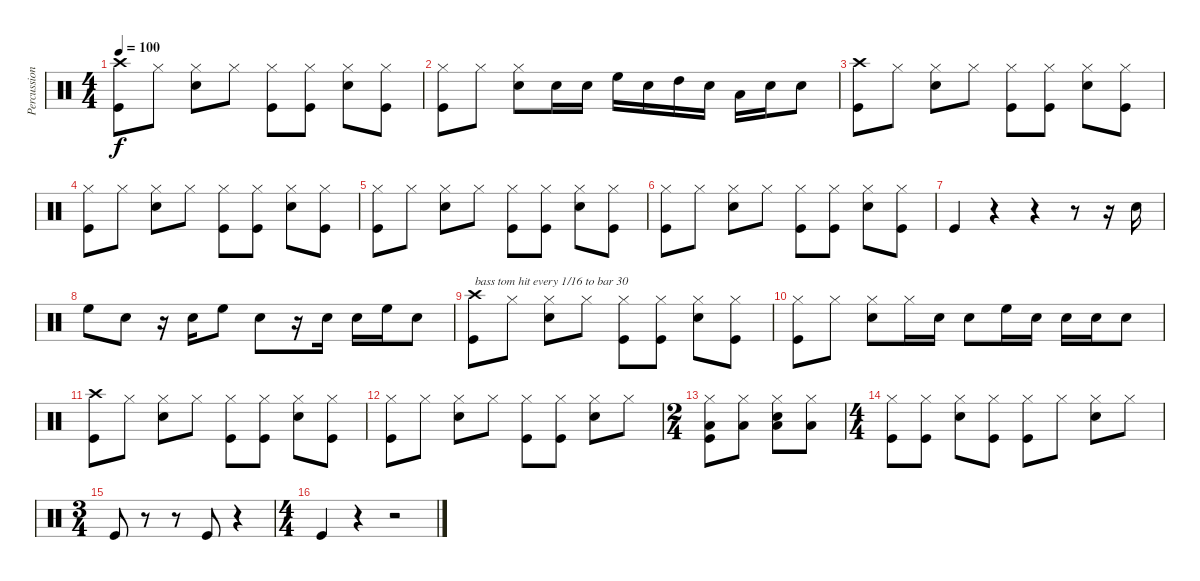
\track ("Percussion" "Percussion") {instrument percussion}
\staff {score}
\articulation defaults
\ts (4 4)
\tempo 100
\clef neutral
\ks c
("Crash high (hit)" "Kick (hit)").8{dy f} "Hi-Hat (closed)".8 ("Hi-Hat (closed)" "Snare (hit) 2").8 "Hi-Hat (closed)".8 ("Hi-Hat (closed)" "Kick (hit)").8 ("Hi-Hat (closed)" "Kick (hit)").8 ("Hi-Hat (closed)" "Snare (hit) 2").8 ("Hi-Hat (closed)" "Kick (hit)").8 |
("Hi-Hat (closed)" "Kick (hit)").8 "Hi-Hat (closed)".8 ("Hi-Hat (closed)" "Snare (hit) 2").8 "Snare (hit) 2".16 "Snare (hit) 2".16 "High Floor Tom (hit)".16 "Snare (hit) 2".16 "High Tom (hit)".16 "Snare (hit) 2".16 "Low Tom (hit)".16 "Snare (hit) 2".16 "Snare (hit) 2".8 |
("Crash high (hit)" "Kick (hit)").8 "Hi-Hat (closed)".8 ("Hi-Hat (closed)" "Snare (hit) 2").8 "Hi-Hat (closed)".8 ("Hi-Hat (closed)" "Kick (hit)").8 ("Hi-Hat (closed)" "Kick (hit)").8 ("Hi-Hat (closed)" "Snare (hit) 2").8 ("Hi-Hat (closed)" "Kick (hit)").8 |
("Hi-Hat (closed)" "Kick (hit)").8 "Hi-Hat (closed)".8 ("Hi-Hat (closed)" "Snare (hit) 2").8 "Hi-Hat (closed)".8 ("Hi-Hat (closed)" "Kick (hit)").8 ("Hi-Hat (closed)" "Kick (hit)").8 ("Hi-Hat (closed)" "Snare (hit) 2").8 ("Hi-Hat (closed)" "Kick (hit)").8 |
("Hi-Hat (closed)" "Kick (hit)").8 "Hi-Hat (closed)".8 ("Hi-Hat (closed)" "Snare (hit) 2").8 "Hi-Hat (closed)".8 ("Hi-Hat (closed)" "Kick (hit)").8 ("Hi-Hat (closed)" "Kick (hit)").8 ("Hi-Hat (closed)" "Snare (hit) 2").8 ("Hi-Hat (closed)" "Kick (hit)").8 |
("Hi-Hat (closed)" "Kick (hit)").8 "Hi-Hat (closed)".8 ("Hi-Hat (closed)" "Snare (hit) 2").8 "Hi-Hat (closed)".8 ("Hi-Hat (closed)" "Kick (hit)").8 ("Hi-Hat (closed)" "Kick (hit)").8 ("Hi-Hat (closed)" "Snare (hit) 2").8 ("Hi-Hat (closed)" "Kick (hit)").8 |
"Kick (hit)".4 r.4 r.4 r.8 r.16 "Snare (hit) 2".16 |
"High Floor Tom (hit)".8 "Snare (hit) 2".8 r.16 "Snare (hit) 2".16 "High Floor Tom (hit)".8 "Snare (hit) 2".8 r.16 "Snare (hit) 2".16 "Snare (hit) 2".16 "High Floor Tom (hit)".16 "Snare (hit) 2".8 |
("Crash high (hit)" "Kick (hit)").8{txt "bass tom hit every 1/16 to bar 30"} "Hi-Hat (closed)".8 ("Hi-Hat (closed)" "Snare (hit) 2").8 "Hi-Hat (closed)".8 ("Hi-Hat (closed)" "Kick (hit)").8 ("Hi-Hat (closed)" "Kick (hit)").8 ("Hi-Hat (closed)" "Snare (hit) 2").8 ("Hi-Hat (closed)" "Kick (hit)").8 |
("Hi-Hat (closed)" "Kick (hit)").8 "Hi-Hat (closed)".8 ("Hi-Hat (closed)" "Snare (hit) 2").8 "Hi-Hat (closed)".16 "Snare (hit) 2".16 "Snare (hit) 2".8 "High Floor Tom (hit)".16 "Snare (hit) 2".16 "Snare (hit) 2".16 "Snare (hit) 2".16 "Snare (hit) 2".8 |
("Crash high (hit)" "Kick (hit)").8 "Hi-Hat (closed)".8 ("Hi-Hat (closed)" "Snare (hit) 2").8 "Hi-Hat (closed)".8 ("Hi-Hat (closed)" "Kick (hit)").8 ("Hi-Hat (closed)" "Kick (hit)").8 ("Hi-Hat (closed)" "Snare (hit) 2").8 ("Hi-Hat (closed)" "Kick (hit)").8 |
("Hi-Hat (closed)" "Kick (hit)").8 "Hi-Hat (closed)".8 ("Hi-Hat (closed)" "Snare (hit) 2").8 "Hi-Hat (closed)".8 ("Hi-Hat (closed)" "Kick (hit)").8 ("Hi-Hat (closed)" "Kick (hit)").8 ("Hi-Hat (closed)" "Snare (hit) 2").8 "Hi-Hat (closed)".8 |
\ts (2 4)
("Hi-Hat (closed)" "Low Floor Tom (hit)" "Kick (hit)").8 ("Hi-Hat (closed)" "Low Floor Tom (hit)").8 ("Hi-Hat (closed)" "Snare (hit) 2" "Low Floor Tom (hit)").8 ("Hi-Hat (closed)" "Low Floor Tom (hit)").8 |
\ts (4 4)
("Hi-Hat (closed)" "Kick (hit)").8 ("Hi-Hat (closed)" "Kick (hit)").8 ("Hi-Hat (closed)" "Snare (hit) 2").8 ("Hi-Hat (closed)" "Kick (hit)").8 ("Hi-Hat (closed)" "Kick (hit)").8 "Hi-Hat (closed)".8 ("Hi-Hat (closed)" "Snare (hit) 2").8 "Hi-Hat (closed)".8 |
\ts (3 4)
"Kick (hit)".8 r.8 r.8 "Kick (hit)".8 r.4 |
\ts (4 4)
"Kick (hit)".4 r.4 r.2
